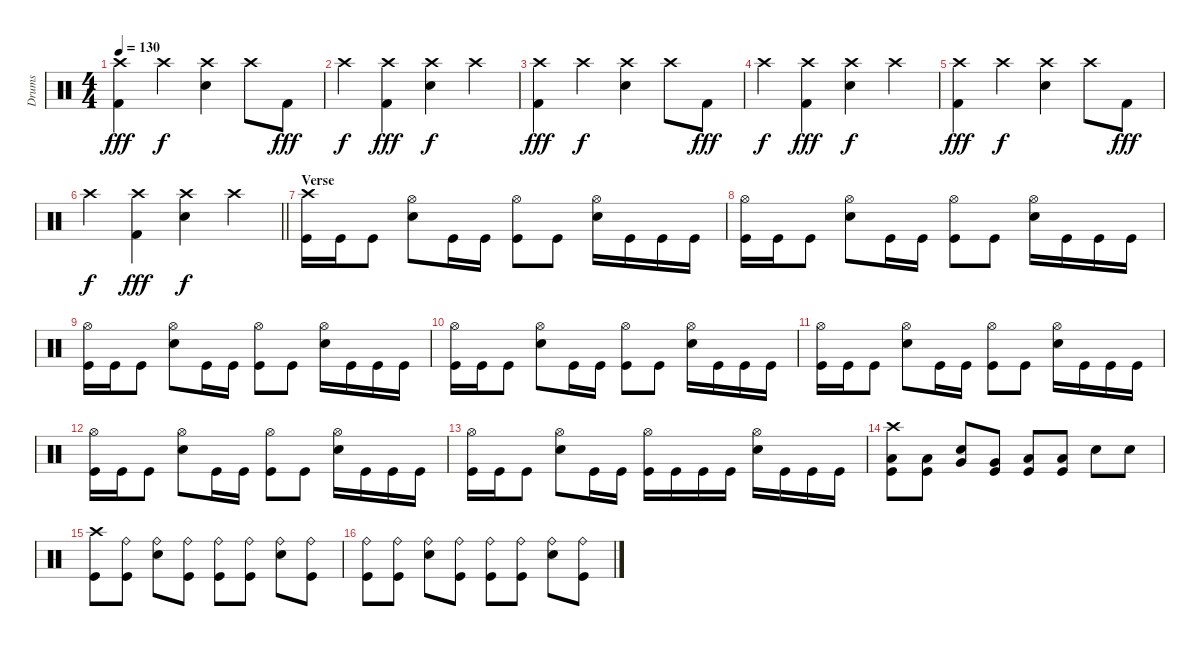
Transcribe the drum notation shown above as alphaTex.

\track ("Drums" "Drums") {instrument percussion}
\staff {score}
\articulation defaults
\ts (4 4)
\tempo 130
\clef neutral
\ks c
("Crash high (hit)" "Kick (hit) 2").4{dy fff} "Crash high (hit)".4{dy f} ("Crash high (hit)" "Electric Snare (hit)").4 "Crash high (hit)".8 "Kick (hit) 2".8{dy fff} |
"Crash high (hit)".4{dy f} ("Crash high (hit)" "Kick (hit) 2").4{dy fff} ("Crash high (hit)" "Electric Snare (hit)").4{dy f} "Crash high (hit)".4 |
("Crash high (hit)" "Kick (hit) 2").4{dy fff} "Crash high (hit)".4{dy f} ("Crash high (hit)" "Electric Snare (hit)").4 "Crash high (hit)".8 "Kick (hit) 2".8{dy fff} |
"Crash high (hit)".4{dy f} ("Crash high (hit)" "Kick (hit) 2").4{dy fff} ("Crash high (hit)" "Electric Snare (hit)").4{dy f} "Crash high (hit)".4 |
("Crash high (hit)" "Kick (hit) 2").4{dy fff} "Crash high (hit)".4{dy f} ("Crash high (hit)" "Electric Snare (hit)").4 "Crash high (hit)".8 "Kick (hit) 2".8{dy fff} |
\barLineRight lightlight "Crash high (hit)".4{dy f}
("Crash high (hit)" "Kick (hit) 2").4{dy fff} ("Crash high (hit)" "Electric Snare (hit)").4{dy f} "Crash high (hit)".4 |
\section ("" "Verse ")
("Crash high (hit)" "Kick (hit)").16 "Kick (hit)".16 "Kick (hit)".8 ("Hi-Hat (open)" "Electric Snare (hit)").8 "Kick (hit)".16 "Kick (hit)".16 ("Hi-Hat (open)" "Kick (hit)").8 "Kick (hit)".8 ("Hi-Hat (open)" "Electric Snare (hit)").16 "Kick (hit)".16 "Kick (hit)".16 "Kick (hit)".16 |
("Hi-Hat (open)" "Kick (hit)").16 "Kick (hit)".16 "Kick (hit)".8 ("Hi-Hat (open)" "Electric Snare (hit)").8 "Kick (hit)".16 "Kick (hit)".16 ("Hi-Hat (open)" "Kick (hit)").8 "Kick (hit)".8 ("Hi-Hat (open)" "Electric Snare (hit)").16 "Kick (hit)".16 "Kick (hit)".16 "Kick (hit)".16 |
("Hi-Hat (open)" "Kick (hit)").16 "Kick (hit)".16 "Kick (hit)".8 ("Hi-Hat (open)" "Electric Snare (hit)").8 "Kick (hit)".16 "Kick (hit)".16 ("Hi-Hat (open)" "Kick (hit)").8 "Kick (hit)".8 ("Hi-Hat (open)" "Electric Snare (hit)").16 "Kick (hit)".16 "Kick (hit)".16 "Kick (hit)".16 |
("Hi-Hat (open)" "Kick (hit)").16 "Kick (hit)".16 "Kick (hit)".8 ("Hi-Hat (open)" "Electric Snare (hit)").8 "Kick (hit)".16 "Kick (hit)".16 ("Hi-Hat (open)" "Kick (hit)").8 "Kick (hit)".8 ("Hi-Hat (open)" "Electric Snare (hit)").16 "Kick (hit)".16 "Kick (hit)".16 "Kick (hit)".16 |
("Hi-Hat (open)" "Kick (hit)").16 "Kick (hit)".16 "Kick (hit)".8 ("Hi-Hat (open)" "Electric Snare (hit)").8 "Kick (hit)".16 "Kick (hit)".16 ("Hi-Hat (open)" "Kick (hit)").8 "Kick (hit)".8 ("Hi-Hat (open)" "Electric Snare (hit)").16 "Kick (hit)".16 "Kick (hit)".16 "Kick (hit)".16 |
("Hi-Hat (open)" "Kick (hit)").16 "Kick (hit)".16 "Kick (hit)".8 ("Hi-Hat (open)" "Electric Snare (hit)").8 "Kick (hit)".16 "Kick (hit)".16 ("Hi-Hat (open)" "Kick (hit)").8 "Kick (hit)".8 ("Hi-Hat (open)" "Electric Snare (hit)").16 "Kick (hit)".16 "Kick (hit)".16 "Kick (hit)".16 |
("Hi-Hat (open)" "Kick (hit)").16 "Kick (hit)".16 "Kick (hit)".8 ("Hi-Hat (open)" "Electric Snare (hit)").8 "Kick (hit)".16 "Kick (hit)".16 ("Hi-Hat (open)" "Kick (hit)").16 "Kick (hit)".16 "Kick (hit)".16 "Kick (hit)".16 ("Hi-Hat (open)" "Electric Snare (hit)").16 "Kick (hit)".16 "Kick (hit)".16 "Kick (hit)".16 |
("Crash high (hit)" "Low Floor Tom (hit)" "Kick (hit)").8 ("Low Floor Tom (hit)" "Kick (hit)").8 ("Very Low Tom (hit)" "Electric Snare (hit)").8 ("Very Low Tom (hit)" "Kick (hit)").8 ("Low Tom (hit)" "Kick (hit)").8 ("Low Tom (hit)" "Kick (hit)").8 "Electric Snare (hit)".8 "Electric Snare (hit)".8 |
("Crash high (hit)" "Kick (hit)").8 ("Ride (bell)" "Kick (hit)").8 ("Ride (bell)" "Electric Snare (hit)").8 ("Ride (bell)" "Kick (hit)").8 ("Ride (bell)" "Kick (hit)").8 ("Ride (bell)" "Kick (hit)").8 ("Ride (bell)" "Electric Snare (hit)").8 ("Ride (bell)" "Kick (hit)").8 |
("Ride (bell)" "Kick (hit)").8 ("Ride (bell)" "Kick (hit)").8 ("Ride (bell)" "Electric Snare (hit)").8 ("Ride (bell)" "Kick (hit)").8 ("Ride (bell)" "Kick (hit)").8 ("Ride (bell)" "Kick (hit)").8 ("Ride (bell)" "Electric Snare (hit)").8 ("Ride (bell)" "Kick (hit)").8
